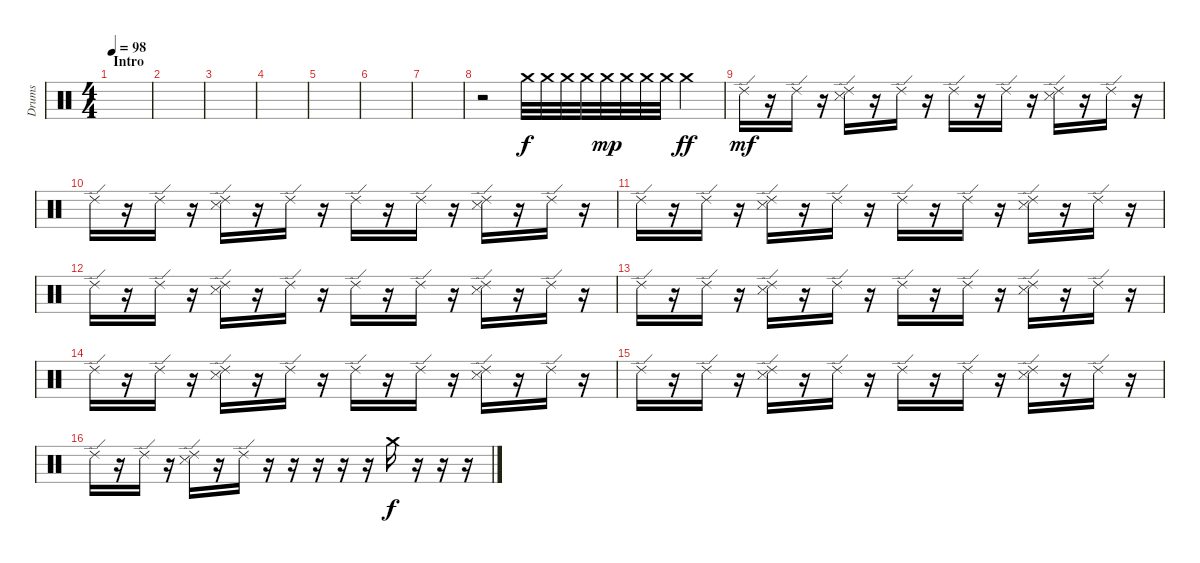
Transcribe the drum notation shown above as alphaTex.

\track ("Drums" "Drums") {instrument percussion}
\staff {score}
\articulation defaults
\ts (4 4)
\section ("" "Intro")
\tempo 98
\clef neutral
\ks c
|
|
|
|
|
|
|
r.2 "Crash medium (hit)".32 "Crash medium (hit)".32 "Crash medium (hit)".32 "Crash medium (hit)".32 "Crash medium (hit)".32{dy mp} "Crash medium (hit)".32 "Crash medium (hit)".32 "Crash medium (hit)".32 "Crash medium (hit)".4{dy ff} |
"Ride (edge) 2".16{dy mf} r.16 "Ride (edge) 2".16 r.16 ("Ride (edge) 2" "Metronome (hit)").16 r.16 "Ride (edge) 2".16 r.16 "Ride (edge) 2".16 r.16 "Ride (edge) 2".16 r.16 ("Ride (edge) 2" "Metronome (hit)").16 r.16 "Ride (edge) 2".16 r.16 |
"Ride (edge) 2".16 r.16 "Ride (edge) 2".16 r.16 ("Ride (edge) 2" "Metronome (hit)").16 r.16 "Ride (edge) 2".16 r.16 "Ride (edge) 2".16 r.16 "Ride (edge) 2".16 r.16 ("Ride (edge) 2" "Metronome (hit)").16 r.16 "Ride (edge) 2".16 r.16 |
"Ride (edge) 2".16 r.16 "Ride (edge) 2".16 r.16 ("Ride (edge) 2" "Metronome (hit)").16 r.16 "Ride (edge) 2".16 r.16 "Ride (edge) 2".16 r.16 "Ride (edge) 2".16 r.16 ("Ride (edge) 2" "Metronome (hit)").16 r.16 "Ride (edge) 2".16 r.16 |
"Ride (edge) 2".16 r.16 "Ride (edge) 2".16 r.16 ("Ride (edge) 2" "Metronome (hit)").16 r.16 "Ride (edge) 2".16 r.16 "Ride (edge) 2".16 r.16 "Ride (edge) 2".16 r.16 ("Ride (edge) 2" "Metronome (hit)").16 r.16 "Ride (edge) 2".16 r.16 |
"Ride (edge) 2".16 r.16 "Ride (edge) 2".16 r.16 ("Ride (edge) 2" "Metronome (hit)").16 r.16 "Ride (edge) 2".16 r.16 "Ride (edge) 2".16 r.16 "Ride (edge) 2".16 r.16 ("Ride (edge) 2" "Metronome (hit)").16 r.16 "Ride (edge) 2".16 r.16 |
"Ride (edge) 2".16 r.16 "Ride (edge) 2".16 r.16 ("Ride (edge) 2" "Metronome (hit)").16 r.16 "Ride (edge) 2".16 r.16 "Ride (edge) 2".16 r.16 "Ride (edge) 2".16 r.16 ("Ride (edge) 2" "Metronome (hit)").16 r.16 "Ride (edge) 2".16 r.16 |
"Ride (edge) 2".16 r.16 "Ride (edge) 2".16 r.16 ("Ride (edge) 2" "Metronome (hit)").16 r.16 "Ride (edge) 2".16 r.16 "Ride (edge) 2".16 r.16 "Ride (edge) 2".16 r.16 ("Ride (edge) 2" "Metronome (hit)").16 r.16 "Ride (edge) 2".16 r.16 |
"Ride (edge) 2".16 r.16 "Ride (edge) 2".16 r.16 ("Ride (edge) 2" "Metronome (hit)").16 r.16 "Ride (edge) 2".16 r.16 r.16 r.16 r.16 r.16 "Crash medium (hit)".16{dy f} r.16 r.16 r.16
